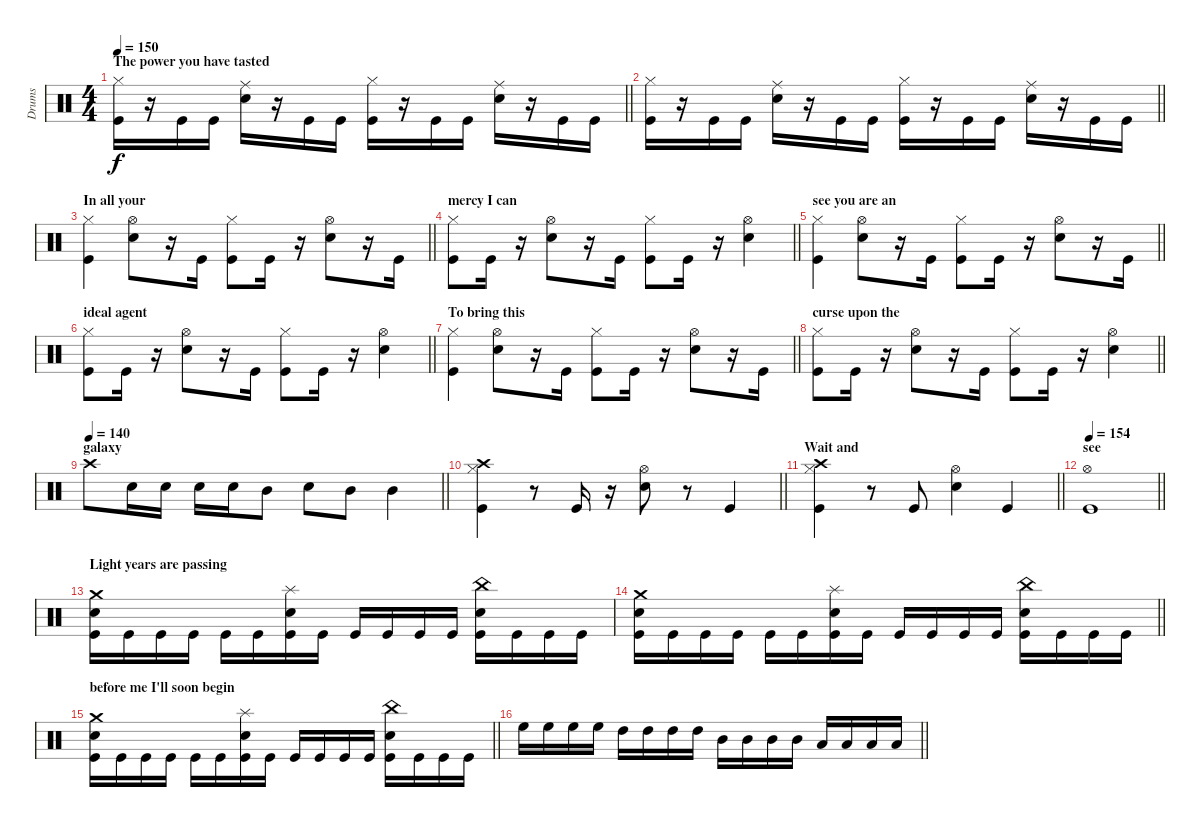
\track ("Drums" "Drums") {instrument percussion}
\staff {score}
\articulation defaults
\ts (4 4)
\section ("" "The power you have tasted")
\tempo 150
\clef neutral
\barLineRight lightlight
\ks c
("Hi-Hat (closed)" "Kick (hit)").16{dy f} r.16 "Kick (hit)".16 "Kick (hit)".16 ("Ride (middle)" "Snare (hit) 2").16 r.16 "Kick (hit)".16 "Kick (hit)".16 ("Hi-Hat (closed)" "Kick (hit)").16 r.16 "Kick (hit)".16 "Kick (hit)".16 ("Ride (middle)" "Snare (hit) 2").16 r.16 "Kick (hit)".16 "Kick (hit)".16 |
\barLineRight lightlight
("Hi-Hat (closed)" "Kick (hit)").16 r.16 "Kick (hit)".16 "Kick (hit)".16 ("Ride (middle)" "Snare (hit) 2").16 r.16 "Kick (hit)".16 "Kick (hit)".16 ("Hi-Hat (closed)" "Kick (hit)").16 r.16 "Kick (hit)".16 "Kick (hit)".16 ("Ride (middle)" "Snare (hit) 2").16 r.16 "Kick (hit)".16 "Kick (hit)".16 |
\section ("" "In all your")
\barLineRight lightlight
("Hi-Hat (closed)" "Kick (hit)").4 ("Hi-Hat (open)" "Snare (hit) 2").8 r.16 "Kick (hit)".16 ("Hi-Hat (closed)" "Kick (hit)").8 "Kick (hit)".16 r.16 ("Hi-Hat (open)" "Snare (hit) 2").8 r.16 "Kick (hit)".16 |
\section ("" "mercy I can")
\barLineRight lightlight
("Hi-Hat (closed)" "Kick (hit)").8 "Kick (hit)".16 r.16 ("Hi-Hat (open)" "Snare (hit) 2").8 r.16 "Kick (hit)".16 ("Hi-Hat (closed)" "Kick (hit)").8 "Kick (hit)".16 r.16 ("Hi-Hat (open)" "Snare (hit) 2").4 |
\section ("" "see you are an ")
\barLineRight lightlight
("Hi-Hat (closed)" "Kick (hit)").4 ("Hi-Hat (open)" "Snare (hit) 2").8 r.16 "Kick (hit)".16 ("Hi-Hat (closed)" "Kick (hit)").8 "Kick (hit)".16 r.16 ("Hi-Hat (open)" "Snare (hit) 2").8 r.16 "Kick (hit)".16 |
\section ("" "ideal agent")
\barLineRight lightlight
("Hi-Hat (closed)" "Kick (hit)").8 "Kick (hit)".16 r.16 ("Hi-Hat (open)" "Snare (hit) 2").8 r.16 "Kick (hit)".16 ("Hi-Hat (closed)" "Kick (hit)").8 "Kick (hit)".16 r.16 ("Hi-Hat (open)" "Snare (hit) 2").4 |
\section ("" "To bring this")
\barLineRight lightlight
("Hi-Hat (closed)" "Kick (hit)").4 ("Hi-Hat (open)" "Snare (hit) 2").8 r.16 "Kick (hit)".16 ("Hi-Hat (closed)" "Kick (hit)").8 "Kick (hit)".16 r.16 ("Hi-Hat (open)" "Snare (hit) 2").8 r.16 "Kick (hit)".16 |
\section ("" "curse upon the")
\barLineRight lightlight
("Hi-Hat (closed)" "Kick (hit)").8 "Kick (hit)".16 r.16 ("Hi-Hat (open)" "Snare (hit) 2").8 r.16 "Kick (hit)".16 ("Hi-Hat (closed)" "Kick (hit)").8 "Kick (hit)".16 r.16 ("Hi-Hat (open)" "Snare (hit) 2").4 |
\section ("" "galaxy")
\tempo 140
\barLineRight lightlight "Crash high (hit)".8 "Snare (hit) 2".16 "Snare (hit) 2".16 "Snare (hit) 2".16 "Snare (hit) 2".16 "Mid Tom (hit)".8 "Snare (hit) 2".8 "Mid Tom (hit)".8 "Mid Tom (hit)".4
|
\barLineRight lightlight
("Crash high (hit)" "Hi-Hat (closed)" "Kick (hit)").4 r.8 "Kick (hit)".16 r.16 ("Hi-Hat (open)" "Snare (hit) 2").8 r.8 "Kick (hit)".4 |
\section ("" "Wait and ")
\barLineRight lightlight
("Crash high (hit)" "Hi-Hat (closed)" "Kick (hit)").4 r.8 "Kick (hit)".8 ("Hi-Hat (open)" "Snare (hit) 2").4 "Kick (hit)".4 |
\section ("" "see")
\tempo 154
\barLineRight lightlight
("Hi-Hat (open)" "Kick (hit)").1 |
\section ("" "Light years are passing ")
("Crash medium (hit)" "Snare (hit) 2" "Kick (hit)").16 "Kick (hit)".16 "Kick (hit)".16 "Kick (hit)".16 "Kick (hit)".16 "Kick (hit)".16 ("Splash (hit)" "Snare (hit) 2" "Kick (hit)").16 "Kick (hit)".16 "Kick (hit)".16 "Kick (hit)".16 "Kick (hit)".16 "Kick (hit)".16 ("China (hit)" "Snare (hit) 2" "Kick (hit)").16 "Kick (hit)".16 "Kick (hit)".16 "Kick (hit)".16 |
\barLineRight lightlight
("Crash medium (hit)" "Snare (hit) 2" "Kick (hit)").16 "Kick (hit)".16 "Kick (hit)".16 "Kick (hit)".16 "Kick (hit)".16 "Kick (hit)".16 ("Splash (hit)" "Snare (hit) 2" "Kick (hit)").16 "Kick (hit)".16 "Kick (hit)".16 "Kick (hit)".16 "Kick (hit)".16 "Kick (hit)".16 ("China (hit)" "Snare (hit) 2" "Kick (hit)").16 "Kick (hit)".16 "Kick (hit)".16 "Kick (hit)".16 |
\section ("" "before me I'll soon begin")
\barLineRight lightlight
("Crash medium (hit)" "Snare (hit) 2" "Kick (hit)").16 "Kick (hit)".16 "Kick (hit)".16 "Kick (hit)".16 "Kick (hit)".16 "Kick (hit)".16 ("Splash (hit)" "Snare (hit) 2" "Kick (hit)").16 "Kick (hit)".16 "Kick (hit)".16 "Kick (hit)".16 "Kick (hit)".16 "Kick (hit)".16 ("China (hit)" "Snare (hit) 2" "Kick (hit)").16 "Kick (hit)".16 "Kick (hit)".16 "Kick (hit)".16 |
\barLineRight lightlight "High Floor Tom (hit)".16 "High Floor Tom (hit)".16 "High Floor Tom (hit)".16 "High Floor Tom (hit)".16 "High Tom (hit)".16 "High Tom (hit)".16 "High Tom (hit)".16 "High Tom (hit)".16 "Mid Tom (hit)".16 "Mid Tom (hit)".16 "Mid Tom (hit)".16 "Mid Tom (hit)".16 "Low Tom (hit)".16 "Low Tom (hit)".16 "Low Tom (hit)".16 "Low Tom (hit)".16
